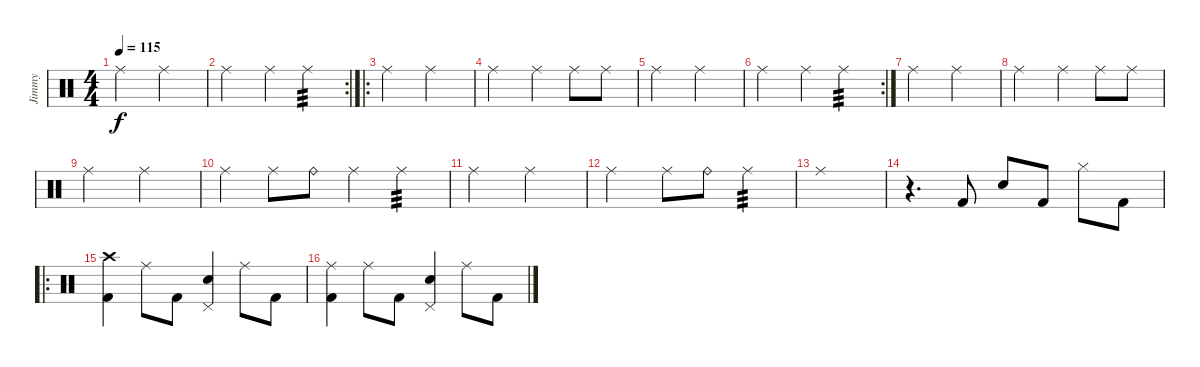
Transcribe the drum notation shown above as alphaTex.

\track ("Jimmy" "Jimmy") {instrument percussion}
\staff {score}
\articulation defaults
\ts (4 4)
\tempo 115
\clef neutral
\ks c "Ride (middle)".2{dy f} "Ride (middle)".2
|
\rc 2 "Ride (middle)".2 "Ride (middle)".4 "Ride (middle)".4{tp 3}
|
\ro "Ride (middle)".2 "Ride (middle)".2
|
"Ride (middle)".2 "Ride (middle)".4 "Ride (middle)".8 "Ride (middle)".8 |
"Ride (middle)".2 "Ride (middle)".2 |
\rc 2 "Ride (middle)".2 "Ride (middle)".4 "Ride (middle)".4{tp 3}
|
"Ride (middle)".2 "Ride (middle)".2 |
"Ride (middle)".2 "Ride (middle)".4 "Ride (middle)".8 "Ride (middle)".8 |
"Ride (middle)".2 "Ride (middle)".2 |
"Ride (middle)".4 "Ride (middle)".8 "Ride (bell)".8 "Ride (middle)".4 "Ride (middle)".4{tp 3} |
"Ride (middle)".2 "Ride (middle)".2 |
"Ride (middle)".2 "Ride (middle)".8 "Ride (bell)".8 "Ride (middle)".4{tp 3} |
"Ride (middle)".1 |
r.4{d} "Kick (hit) 2".8 "Snare (hit) 2".8 "Kick (hit) 2".8 "Hi-Hat (closed)".8 "Kick (hit) 2".8 |
\ro
("Crash high (hit)" "Kick (hit) 2").4 "Ride (middle)".8 "Kick (hit) 2".8 ("Pedal Hi-Hat (hit)" "Snare (hit) 2").4 "Ride (middle)".8 "Kick (hit) 2".8 |
("Ride (middle)" "Kick (hit) 2").4 "Ride (middle)".8 "Kick (hit) 2".8 ("Pedal Hi-Hat (hit)" "Snare (hit) 2").4 "Ride (middle)".8 "Kick (hit) 2".8
